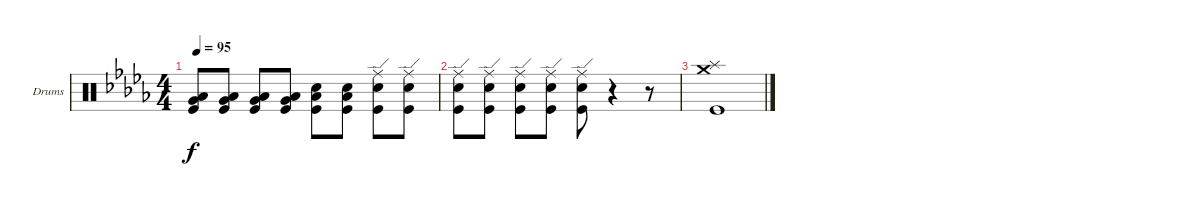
\bracketExtendMode groupsimilarinstruments
\firstSystemTrackNameOrientation horizontal
\otherSystemsTrackNameOrientation horizontal
\track ("Drumkit" "Drums") {instrument percussion}
\staff {score}
\articulation defaults
\ts (4 4)
\tempo 95
\clef neutral
\ks bbminor
("Low Tom (hit)" "Very Low Tom (hit)" "Kick (hit)").8{dy f} ("Low Tom (hit)" "Very Low Tom (hit)" "Kick (hit)").8 ("Low Tom (hit)" "Very Low Tom (hit)" "Kick (hit)").8 ("Low Tom (hit)" "Very Low Tom (hit)" "Kick (hit)").8 ("Low Tom (hit)" "Kick (hit)" "Snare (hit) 2").8 ("Low Tom (hit)" "Kick (hit)" "Snare (hit) 2").8 ("Kick (hit)" "Ride (edge)" "Snare (hit) 2").8 ("Kick (hit)" "Ride (edge)" "Snare (hit) 2").8 |
("Kick (hit)" "Snare (hit) 2" "Ride (edge)").8 ("Kick (hit)" "Ride (edge)" "Snare (hit) 2").8 ("Kick (hit)" "Ride (edge)" "Snare (hit) 2").8 ("Kick (hit)" "Ride (edge)" "Snare (hit) 2").8 ("Kick (hit)" "Snare (hit) 2" "Ride (edge)").8 r.4 r.8 |
("Kick (hit)" "Crash medium (hit)" "Splash (hit)").1
